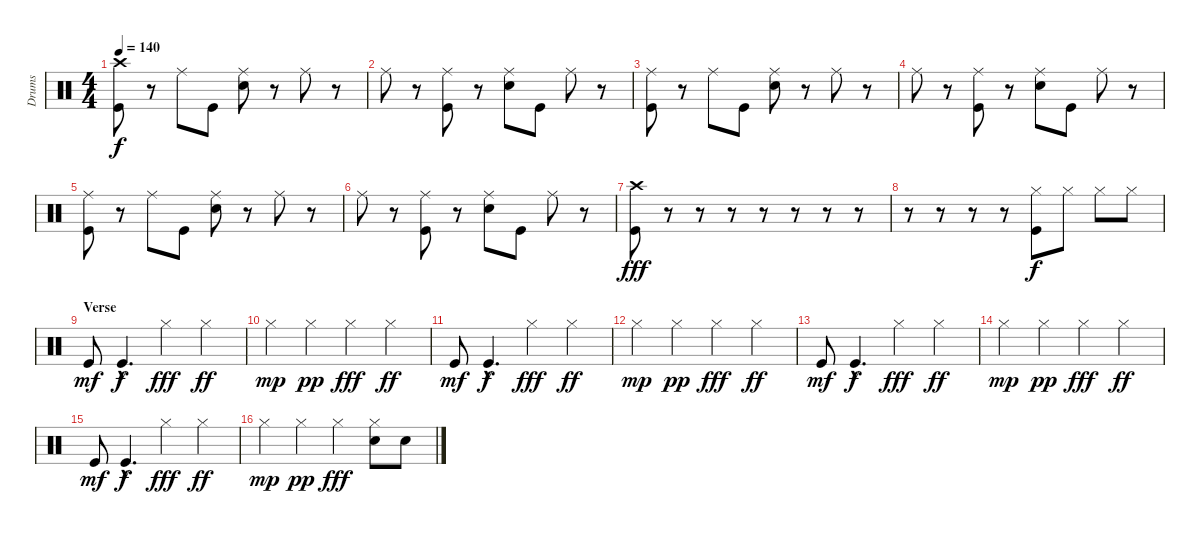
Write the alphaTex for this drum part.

\track ("Drums" "Drums") {instrument percussion}
\staff {score}
\articulation defaults
\ts (4 4)
\tempo 140
\clef neutral
\ks c
("Crash high (hit)" "Kick (hit)").8{dy f} r.8 "Ride (middle)".8 "Kick (hit)".8 ("Ride (middle)" "Snare (hit) 2").8 r.8 "Ride (middle)".8 r.8 |
"Ride (middle)".8 r.8 ("Ride (middle)" "Kick (hit)").8 r.8 ("Ride (middle)" "Snare (hit) 2").8 "Kick (hit)".8 "Ride (middle)".8 r.8 |
("Ride (middle)" "Kick (hit)").8 r.8 "Ride (middle)".8 "Kick (hit)".8 ("Ride (middle)" "Snare (hit) 2").8 r.8 "Ride (middle)".8 r.8 |
"Ride (middle)".8 r.8 ("Ride (middle)" "Kick (hit)").8 r.8 ("Ride (middle)" "Snare (hit) 2").8 "Kick (hit)".8 "Ride (middle)".8 r.8 |
("Ride (middle)" "Kick (hit)").8 r.8 "Ride (middle)".8 "Kick (hit)".8 ("Ride (middle)" "Snare (hit) 2").8 r.8 "Ride (middle)".8 r.8 |
"Ride (middle)".8 r.8 ("Ride (middle)" "Kick (hit)").8 r.8 ("Ride (middle)" "Snare (hit) 2").8 "Kick (hit)".8 "Ride (middle)".8 r.8 |
("Crash high (hit)" "Kick (hit)").8{dy fff} r.8 r.8 r.8 r.8 r.8 r.8 r.8 |
r.8 r.8 r.8 r.8 ("Hi-Hat (closed)" "Kick (hit)").8{dy f} "Hi-Hat (closed)".8 "Hi-Hat (closed)".8 "Hi-Hat (closed)".8 |
\section ("" "Verse")
"Kick (hit)".8{dy mf} "Kick (hit)"{hac}.4{d dy f} "Hi-Hat (closed)".4{dy fff} "Hi-Hat (closed)".4{dy ff} |
"Hi-Hat (closed)".4{dy mp} "Hi-Hat (closed)".4{dy pp} "Hi-Hat (closed)".4{dy fff} "Hi-Hat (closed)".4{dy ff} |
"Kick (hit)".8{dy mf} "Kick (hit)"{hac}.4{d dy f} "Hi-Hat (closed)".4{dy fff} "Hi-Hat (closed)".4{dy ff} |
"Hi-Hat (closed)".4{dy mp} "Hi-Hat (closed)".4{dy pp} "Hi-Hat (closed)".4{dy fff} "Hi-Hat (closed)".4{dy ff} |
"Kick (hit)".8{dy mf} "Kick (hit)"{hac}.4{d dy f} "Hi-Hat (closed)".4{dy fff} "Hi-Hat (closed)".4{dy ff} |
"Hi-Hat (closed)".4{dy mp} "Hi-Hat (closed)".4{dy pp} "Hi-Hat (closed)".4{dy fff} "Hi-Hat (closed)".4{dy ff} |
"Kick (hit)".8{dy mf} "Kick (hit)"{hac}.4{d dy f} "Hi-Hat (closed)".4{dy fff} "Hi-Hat (closed)".4{dy ff} |
"Hi-Hat (closed)".4{dy mp} "Hi-Hat (closed)".4{dy pp} "Hi-Hat (closed)".4{dy fff} ("Hi-Hat (closed)" "Snare (hit) 2").8 "Snare (hit) 2".8
